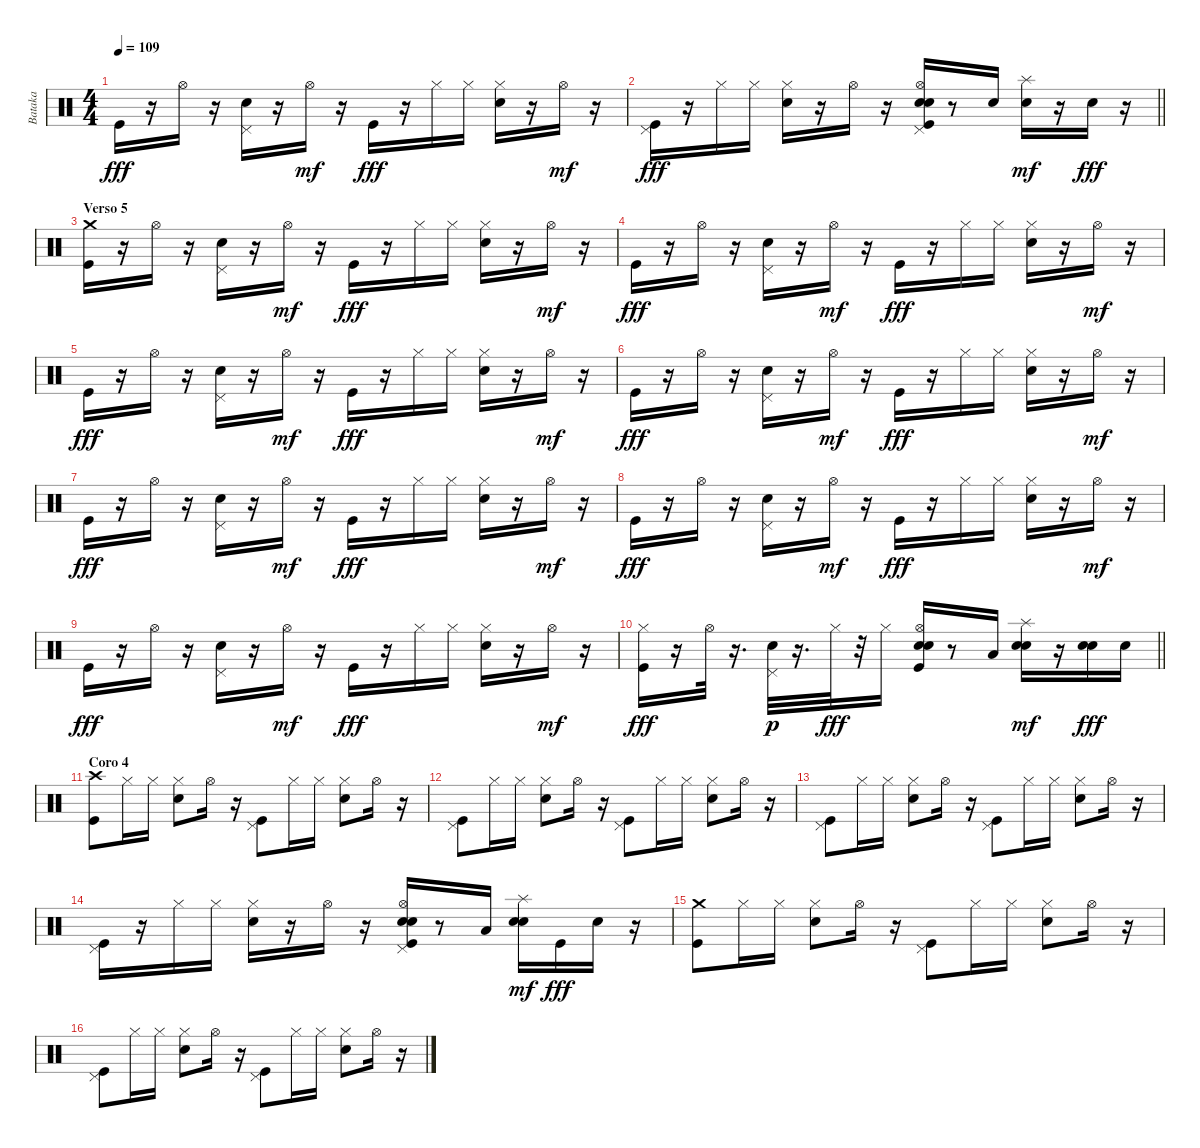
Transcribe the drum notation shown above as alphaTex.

\track ("Bataka" "Bataka") {instrument percussion}
\staff {score}
\articulation defaults
\ts (4 4)
\tempo 109
\clef neutral
\ks c "Kick (hit)".16{dy fff}
r.16 "Hi-Hat (open)".16 r.16 ("Snare (hit) 2" "Pedal Hi-Hat (hit)").16 r.16 "Hi-Hat (open)".16{dy mf} r.16 "Kick (hit)".16{dy fff} r.16 "Hi-Hat (closed)".16 "Hi-Hat (closed)".16 ("Snare (hit) 2" "Hi-Hat (closed)").16 r.16 "Hi-Hat (open)".16{dy mf} r.16 |
\barLineRight lightlight
("Kick (hit)" "Pedal Hi-Hat (hit)").16{dy fff} r.16 "Hi-Hat (closed)".16 "Hi-Hat (closed)".16 ("Snare (hit) 2" "Hi-Hat (closed)").16 r.16 "Hi-Hat (open)".16 r.16 ("Snare (hit) 2" "Kick (hit)" "Snare (hit) 2" "Hi-Hat (open)" "Pedal Hi-Hat (hit)").16 r.8 "Snare (hit) 2".16 ("Snare (hit) 2" "Splash (hit)").16{dy mf} r.16 "Snare (hit) 2".16{dy fff} r.16 |
\section ("" "Verso 5")
("Kick (hit)" "Crash medium (hit)").16 r.16 "Hi-Hat (open)".16 r.16 ("Pedal Hi-Hat (hit)" "Snare (hit) 2").16 r.16 "Hi-Hat (open)".16{dy mf} r.16 "Kick (hit)".16{dy fff} r.16 "Hi-Hat (closed)".16 "Hi-Hat (closed)".16 ("Hi-Hat (closed)" "Snare (hit) 2").16 r.16 "Hi-Hat (open)".16{dy mf} r.16 |
"Kick (hit)".16{dy fff} r.16 "Hi-Hat (open)".16 r.16 ("Snare (hit) 2" "Pedal Hi-Hat (hit)").16 r.16 "Hi-Hat (open)".16{dy mf} r.16 "Kick (hit)".16{dy fff} r.16 "Hi-Hat (closed)".16 "Hi-Hat (closed)".16 ("Snare (hit) 2" "Hi-Hat (closed)").16 r.16 "Hi-Hat (open)".16{dy mf} r.16 |
"Kick (hit)".16{dy fff} r.16 "Hi-Hat (open)".16 r.16 ("Snare (hit) 2" "Pedal Hi-Hat (hit)").16 r.16 "Hi-Hat (open)".16{dy mf} r.16 "Kick (hit)".16{dy fff} r.16 "Hi-Hat (closed)".16 "Hi-Hat (closed)".16 ("Snare (hit) 2" "Hi-Hat (closed)").16 r.16 "Hi-Hat (open)".16{dy mf} r.16 |
"Kick (hit)".16{dy fff} r.16 "Hi-Hat (open)".16 r.16 ("Snare (hit) 2" "Pedal Hi-Hat (hit)").16 r.16 "Hi-Hat (open)".16{dy mf} r.16 "Kick (hit)".16{dy fff} r.16 "Hi-Hat (closed)".16 "Hi-Hat (closed)".16 ("Snare (hit) 2" "Hi-Hat (closed)").16 r.16 "Hi-Hat (open)".16{dy mf} r.16 |
"Kick (hit)".16{dy fff} r.16 "Hi-Hat (open)".16 r.16 ("Snare (hit) 2" "Pedal Hi-Hat (hit)").16 r.16 "Hi-Hat (open)".16{dy mf} r.16 "Kick (hit)".16{dy fff} r.16 "Hi-Hat (closed)".16 "Hi-Hat (closed)".16 ("Snare (hit) 2" "Hi-Hat (closed)").16 r.16 "Hi-Hat (open)".16{dy mf} r.16 |
"Kick (hit)".16{dy fff} r.16 "Hi-Hat (open)".16 r.16 ("Snare (hit) 2" "Pedal Hi-Hat (hit)").16 r.16 "Hi-Hat (open)".16{dy mf} r.16 "Kick (hit)".16{dy fff} r.16 "Hi-Hat (closed)".16 "Hi-Hat (closed)".16 ("Snare (hit) 2" "Hi-Hat (closed)").16 r.16 "Hi-Hat (open)".16{dy mf} r.16 |
"Kick (hit)".16{dy fff} r.16 "Hi-Hat (open)".16 r.16 ("Snare (hit) 2" "Pedal Hi-Hat (hit)").16 r.16 "Hi-Hat (open)".16{dy mf} r.16 "Kick (hit)".16{dy fff} r.16 "Hi-Hat (closed)".16 "Hi-Hat (closed)".16 ("Snare (hit) 2" "Hi-Hat (closed)").16 r.16 "Hi-Hat (open)".16{dy mf} r.16 |
\barLineRight lightlight
("Kick (hit)" "Hi-Hat (closed)").16{dy fff} r.16 "Hi-Hat (open)".32 r.16{d} ("Snare (hit) 2" "Pedal Hi-Hat (hit)").32{dy p} r.16{d} "Hi-Hat (closed)".32{dy fff} r.32 "Hi-Hat (closed)".16 ("Snare (hit) 2" "Kick (hit)" "Snare (hit) 2" "Hi-Hat (open)").16 r.8 "Low Floor Tom (hit)".16 ("Snare (hit) 2" "Snare (hit) 2" "Splash (hit)").16{dy mf} r.16 ("Snare (hit) 2" "Snare (hit) 2").16{dy fff} "Snare (hit) 2".16 |
\section ("" "Coro 4")
("Kick (hit)" "Crash high (hit)").8 "Hi-Hat (closed)".16 "Hi-Hat (closed)".16 ("Snare (hit) 2" "Hi-Hat (closed)").8 "Hi-Hat (open)".16 r.16 ("Kick (hit)" "Pedal Hi-Hat (hit)").8 "Hi-Hat (closed)".16 "Hi-Hat (closed)".16 ("Snare (hit) 2" "Hi-Hat (closed)").8 "Hi-Hat (open)".16 r.16 |
("Kick (hit)" "Pedal Hi-Hat (hit)").8 "Hi-Hat (closed)".16 "Hi-Hat (closed)".16 ("Snare (hit) 2" "Hi-Hat (closed)").8 "Hi-Hat (open)".16 r.16 ("Kick (hit)" "Pedal Hi-Hat (hit)").8 "Hi-Hat (closed)".16 "Hi-Hat (closed)".16 ("Snare (hit) 2" "Hi-Hat (closed)").8 "Hi-Hat (open)".16 r.16 |
("Kick (hit)" "Pedal Hi-Hat (hit)").8 "Hi-Hat (closed)".16 "Hi-Hat (closed)".16 ("Snare (hit) 2" "Hi-Hat (closed)").8 "Hi-Hat (open)".16 r.16 ("Kick (hit)" "Pedal Hi-Hat (hit)").8 "Hi-Hat (closed)".16 "Hi-Hat (closed)".16 ("Snare (hit) 2" "Hi-Hat (closed)").8 "Hi-Hat (open)".16 r.16 |
("Kick (hit)" "Pedal Hi-Hat (hit)").16 r.16 "Hi-Hat (closed)".16 "Hi-Hat (closed)".16 ("Snare (hit) 2" "Hi-Hat (closed)").16 r.16 "Hi-Hat (open)".16 r.16 ("Snare (hit) 2" "Kick (hit)" "Snare (hit) 2" "Hi-Hat (open)" "Pedal Hi-Hat (hit)").16 r.8 "Low Floor Tom (hit)".16 ("Snare (hit) 2" "Snare (hit) 2" "Splash (hit)").16{dy mf} "Kick (hit)".16{dy fff} "Snare (hit) 2".16 r.16 |
("Kick (hit)" "Crash medium (hit)").8 "Hi-Hat (closed)".16 "Hi-Hat (closed)".16 ("Snare (hit) 2" "Hi-Hat (closed)").8 "Hi-Hat (open)".16 r.16 ("Kick (hit)" "Pedal Hi-Hat (hit)").8 "Hi-Hat (closed)".16 "Hi-Hat (closed)".16 ("Snare (hit) 2" "Hi-Hat (closed)").8 "Hi-Hat (open)".16 r.16 |
("Kick (hit)" "Pedal Hi-Hat (hit)").8 "Hi-Hat (closed)".16 "Hi-Hat (closed)".16 ("Snare (hit) 2" "Hi-Hat (closed)").8 "Hi-Hat (open)".16 r.16 ("Kick (hit)" "Pedal Hi-Hat (hit)").8 "Hi-Hat (closed)".16 "Hi-Hat (closed)".16 ("Snare (hit) 2" "Hi-Hat (closed)").8 "Hi-Hat (open)".16 r.16
